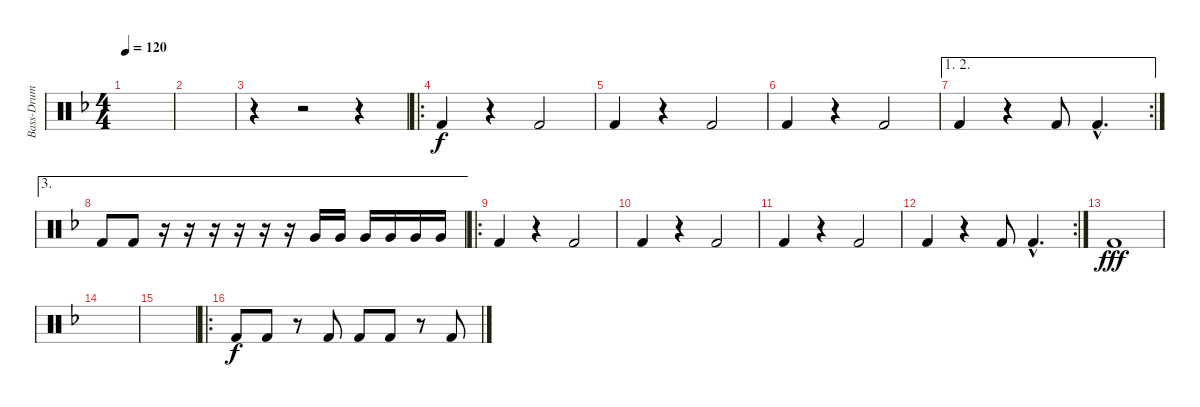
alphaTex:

\track ("Bass-Drum" "Bass-Drum") {instrument percussion}
\staff {score}
\articulation defaults
\ts (4 4)
\tempo 120
\clef neutral
\ks f
|
|
r.4 r.2 r.4 |
\ro "Kick (hit) 2".4
r.4 "Kick (hit) 2".2 |
"Kick (hit) 2".4 r.4 "Kick (hit) 2".2 |
"Kick (hit) 2".4 r.4 "Kick (hit) 2".2 |
\ae (1 2)
\rc 2 "Kick (hit) 2".4
r.4 "Kick (hit) 2".8 "Kick (hit) 2"{hac}.4{d} |
\ae 3 "Kick (hit) 2".8 "Kick (hit) 2".8
r.16 r.16 r.16 r.16 r.16 r.16 "Very Low Tom (hit)".16 "Very Low Tom (hit)".16 "Very Low Tom (hit)".16 "Very Low Tom (hit)".16 "Very Low Tom (hit)".16 "Very Low Tom (hit)".16 |
\ro "Kick (hit) 2".4
r.4 "Kick (hit) 2".2 |
"Kick (hit) 2".4 r.4 "Kick (hit) 2".2 |
"Kick (hit) 2".4 r.4 "Kick (hit) 2".2 |
\rc 2 "Kick (hit) 2".4
r.4 "Kick (hit) 2".8 "Kick (hit) 2"{hac}.4{d} |
"Kick (hit) 2".1{dy fff} |
|
|
\ro "Kick (hit) 2".8{dy f} "Kick (hit) 2".8
r.8 "Kick (hit) 2".8 "Kick (hit) 2".8 "Kick (hit) 2".8 r.8 "Kick (hit) 2".8
